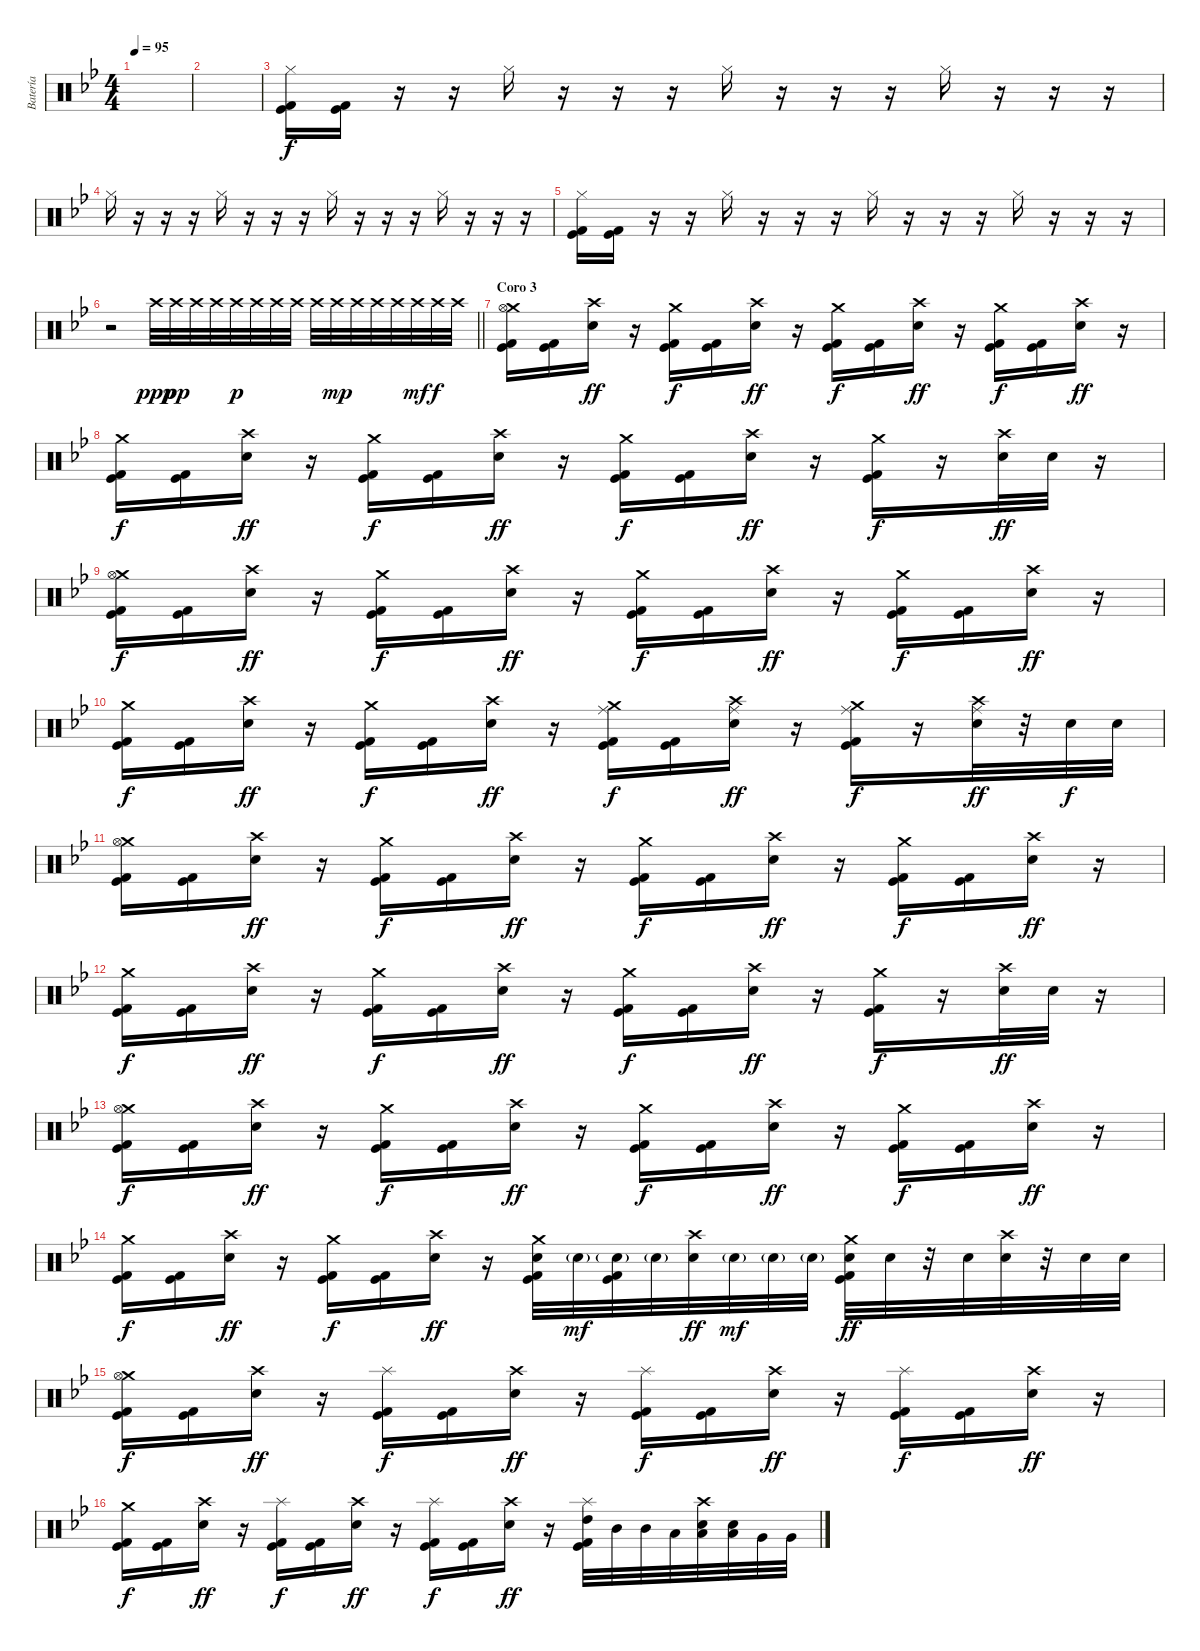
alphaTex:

\track ("Batería" "Batería") {instrument percussion}
\staff {score}
\articulation defaults
\ts (4 4)
\tempo 95
\clef neutral
\ks bb
|
|
("Hi-Hat (closed)" "Kick (hit) 2" "Kick (hit)").16 ("Kick (hit) 2" "Kick (hit)").16 r.16 r.16 "Hi-Hat (closed)".16 r.16 r.16 r.16 "Hi-Hat (closed)".16 r.16 r.16 r.16 "Hi-Hat (closed)".16 r.16 r.16 r.16 |
"Hi-Hat (closed)".16 r.16 r.16 r.16 "Hi-Hat (closed)".16 r.16 r.16 r.16 "Hi-Hat (closed)".16 r.16 r.16 r.16 "Hi-Hat (closed)".16 r.16 r.16 r.16 |
("Hi-Hat (closed)" "Kick (hit) 2" "Kick (hit)").16 ("Kick (hit) 2" "Kick (hit)").16 r.16 r.16 "Hi-Hat (closed)".16 r.16 r.16 r.16 "Hi-Hat (closed)".16 r.16 r.16 r.16 "Hi-Hat (closed)".16 r.16 r.16 r.16 |
\barLineRight lightlight
r.2 "Crash high (hit)".32{dy ppp} "Crash high (hit)".32{dy pp} "Crash high (hit)".32 "Crash high (hit)".32 "Crash high (hit)".32{dy p} "Crash high (hit)".32 "Crash high (hit)".32 "Crash high (hit)".32 "Crash high (hit)".32 "Crash high (hit)".32{dy mp} "Crash high (hit)".32 "Crash high (hit)".32 "Crash high (hit)".32 "Crash high (hit)".32{dy mf} "Crash high (hit)".32{dy f} "Crash high (hit)".32 |
\section ("" "Coro 3")
("Crash medium (hit)" "Hi-Hat (open)" "Kick (hit) 2" "Kick (hit)").16 ("Kick (hit) 2" "Kick (hit)").16 ("Crash high (hit)" "Electric Snare (hit)").16{dy ff} r.16 ("Crash medium (hit)" "Kick (hit) 2" "Kick (hit)").16{dy f} ("Kick (hit) 2" "Kick (hit)").16 ("Crash high (hit)" "Electric Snare (hit)").16{dy ff} r.16 ("Crash medium (hit)" "Kick (hit) 2" "Kick (hit)").16{dy f} ("Kick (hit) 2" "Kick (hit)").16 ("Crash high (hit)" "Electric Snare (hit)").16{dy ff} r.16 ("Crash medium (hit)" "Kick (hit) 2" "Kick (hit)").16{dy f} ("Kick (hit) 2" "Kick (hit)").16 ("Crash high (hit)" "Electric Snare (hit)").16{dy ff} r.16 |
("Crash medium (hit)" "Kick (hit) 2" "Kick (hit)").16{dy f} ("Kick (hit) 2" "Kick (hit)").16 ("Crash high (hit)" "Electric Snare (hit)").16{dy ff} r.16 ("Crash medium (hit)" "Kick (hit) 2" "Kick (hit)").16{dy f} ("Kick (hit) 2" "Kick (hit)").16 ("Crash high (hit)" "Electric Snare (hit)").16{dy ff} r.16 ("Crash medium (hit)" "Kick (hit) 2" "Kick (hit)").16{dy f} ("Kick (hit) 2" "Kick (hit)").16 ("Crash high (hit)" "Electric Snare (hit)").16{dy ff} r.16 ("Crash medium (hit)" "Kick (hit) 2" "Kick (hit)").16{dy f} r.16 ("Crash high (hit)" "Electric Snare (hit)").32{dy ff} "Electric Snare (hit)".32 r.16 |
("Crash medium (hit)" "Hi-Hat (open)" "Kick (hit) 2" "Kick (hit)").16{dy f} ("Kick (hit) 2" "Kick (hit)").16 ("Crash high (hit)" "Electric Snare (hit)").16{dy ff} r.16 ("Crash medium (hit)" "Kick (hit) 2" "Kick (hit)").16{dy f} ("Kick (hit) 2" "Kick (hit)").16 ("Crash high (hit)" "Electric Snare (hit)").16{dy ff} r.16 ("Crash medium (hit)" "Kick (hit) 2" "Kick (hit)").16{dy f} ("Kick (hit) 2" "Kick (hit)").16 ("Crash high (hit)" "Electric Snare (hit)").16{dy ff} r.16 ("Crash medium (hit)" "Kick (hit) 2" "Kick (hit)").16{dy f} ("Kick (hit) 2" "Kick (hit)").16 ("Crash high (hit)" "Electric Snare (hit)").16{dy ff} r.16 |
("Crash medium (hit)" "Kick (hit) 2" "Kick (hit)").16{dy f} ("Kick (hit) 2" "Kick (hit)").16 ("Crash high (hit)" "Electric Snare (hit)").16{dy ff} r.16 ("Crash medium (hit)" "Kick (hit) 2" "Kick (hit)").16{dy f} ("Kick (hit) 2" "Kick (hit)").16 ("Crash high (hit)" "Electric Snare (hit)").16{dy ff} r.16 ("Crash medium (hit)" "Ride (middle)" "Kick (hit) 2" "Kick (hit)").16{dy f} ("Kick (hit) 2" "Kick (hit)").16 ("Crash high (hit)" "Ride (middle)" "Electric Snare (hit)").16{dy ff} r.16 ("Crash medium (hit)" "Ride (middle)" "Kick (hit) 2" "Kick (hit)").16{dy f} r.16 ("Crash high (hit)" "Ride (middle)" "Electric Snare (hit)").32{dy ff} r.32 "Electric Snare (hit)".32{dy f} "Electric Snare (hit)".32 |
("Crash medium (hit)" "Hi-Hat (open)" "Kick (hit) 2" "Kick (hit)").16 ("Kick (hit) 2" "Kick (hit)").16 ("Crash high (hit)" "Electric Snare (hit)").16{dy ff} r.16 ("Crash medium (hit)" "Kick (hit) 2" "Kick (hit)").16{dy f} ("Kick (hit) 2" "Kick (hit)").16 ("Crash high (hit)" "Electric Snare (hit)").16{dy ff} r.16 ("Crash medium (hit)" "Kick (hit) 2" "Kick (hit)").16{dy f} ("Kick (hit) 2" "Kick (hit)").16 ("Crash high (hit)" "Electric Snare (hit)").16{dy ff} r.16 ("Crash medium (hit)" "Kick (hit) 2" "Kick (hit)").16{dy f} ("Kick (hit) 2" "Kick (hit)").16 ("Crash high (hit)" "Electric Snare (hit)").16{dy ff} r.16 |
("Crash medium (hit)" "Kick (hit) 2" "Kick (hit)").16{dy f} ("Kick (hit) 2" "Kick (hit)").16 ("Crash high (hit)" "Electric Snare (hit)").16{dy ff} r.16 ("Crash medium (hit)" "Kick (hit) 2" "Kick (hit)").16{dy f} ("Kick (hit) 2" "Kick (hit)").16 ("Crash high (hit)" "Electric Snare (hit)").16{dy ff} r.16 ("Crash medium (hit)" "Kick (hit) 2" "Kick (hit)").16{dy f} ("Kick (hit) 2" "Kick (hit)").16 ("Crash high (hit)" "Electric Snare (hit)").16{dy ff} r.16 ("Crash medium (hit)" "Kick (hit) 2" "Kick (hit)").16{dy f} r.16 ("Crash high (hit)" "Electric Snare (hit)").32{dy ff} "Electric Snare (hit)".32 r.16 |
("Crash medium (hit)" "Hi-Hat (open)" "Kick (hit) 2" "Kick (hit)").16{dy f} ("Kick (hit) 2" "Kick (hit)").16 ("Crash high (hit)" "Electric Snare (hit)").16{dy ff} r.16 ("Crash medium (hit)" "Kick (hit) 2" "Kick (hit)").16{dy f} ("Kick (hit) 2" "Kick (hit)").16 ("Crash high (hit)" "Electric Snare (hit)").16{dy ff} r.16 ("Crash medium (hit)" "Kick (hit) 2" "Kick (hit)").16{dy f} ("Kick (hit) 2" "Kick (hit)").16 ("Crash high (hit)" "Electric Snare (hit)").16{dy ff} r.16 ("Crash medium (hit)" "Kick (hit) 2" "Kick (hit)").16{dy f} ("Kick (hit) 2" "Kick (hit)").16 ("Crash high (hit)" "Electric Snare (hit)").16{dy ff} r.16 |
("Crash medium (hit)" "Kick (hit) 2" "Kick (hit)").16{dy f} ("Kick (hit) 2" "Kick (hit)").16 ("Crash high (hit)" "Electric Snare (hit)").16{dy ff} r.16 ("Crash medium (hit)" "Kick (hit) 2" "Kick (hit)").16{dy f} ("Kick (hit) 2" "Kick (hit)").16 ("Crash high (hit)" "Electric Snare (hit)").16{dy ff} r.16 ("Crash medium (hit)" "Electric Snare (hit)" "Kick (hit) 2" "Kick (hit)").32 "Electric Snare (hit)"{g}.32{dy mf} ("Electric Snare (hit)"{g} "Kick (hit) 2" "Kick (hit)").32 "Electric Snare (hit)"{g}.32 ("Crash high (hit)" "Electric Snare (hit)").32{dy ff} "Electric Snare (hit)"{g}.32{dy mf} "Electric Snare (hit)"{g}.32 "Electric Snare (hit)"{g}.32 ("Crash medium (hit)" "Electric Snare (hit)" "Kick (hit) 2" "Kick (hit)").32{dy ff} "Electric Snare (hit)".32 r.32 "Electric Snare (hit)".32 ("Crash high (hit)" "Electric Snare (hit)").32 r.32 "Electric Snare (hit)".32 "Electric Snare (hit)".32 |
("Crash medium (hit)" "Hi-Hat (open)" "Kick (hit) 2" "Kick (hit)").16{dy f} ("Kick (hit) 2" "Kick (hit)").16 ("Crash high (hit)" "Electric Snare (hit)").16{dy ff} r.16 ("Splash (hit)" "Kick (hit) 2" "Kick (hit)").16{dy f} ("Kick (hit) 2" "Kick (hit)").16 ("Crash high (hit)" "Electric Snare (hit)").16{dy ff} r.16 ("Splash (hit)" "Kick (hit) 2" "Kick (hit)").16{dy f} ("Kick (hit) 2" "Kick (hit)").16 ("Crash high (hit)" "Electric Snare (hit)").16{dy ff} r.16 ("Splash (hit)" "Kick (hit) 2" "Kick (hit)").16{dy f} ("Kick (hit) 2" "Kick (hit)").16 ("Crash high (hit)" "Electric Snare (hit)").16{dy ff} r.16 |
("Crash medium (hit)" "Kick (hit) 2" "Kick (hit)").16{dy f} ("Kick (hit) 2" "Kick (hit)").16 ("Crash high (hit)" "Electric Snare (hit)").16{dy ff} r.16 ("Splash (hit)" "Kick (hit) 2" "Kick (hit)").16{dy f} ("Kick (hit) 2" "Kick (hit)").16 ("Crash high (hit)" "Electric Snare (hit)").16{dy ff} r.16 ("Splash (hit)" "Kick (hit) 2" "Kick (hit)").16{dy f} ("Kick (hit) 2" "Kick (hit)").16 ("Crash high (hit)" "Electric Snare (hit)").16{dy ff} r.16 ("Splash (hit)" "High Tom (hit)" "Kick (hit) 2" "Kick (hit)").32 "Mid Tom (hit)".32 "Mid Tom (hit)".32 "Low Tom (hit)".32 ("Crash high (hit)" "Low Tom (hit)" "Electric Snare (hit)").32 ("Low Tom (hit)" "Electric Snare (hit)").32 "Very Low Tom (hit)".32 "Very Low Tom (hit)".32
